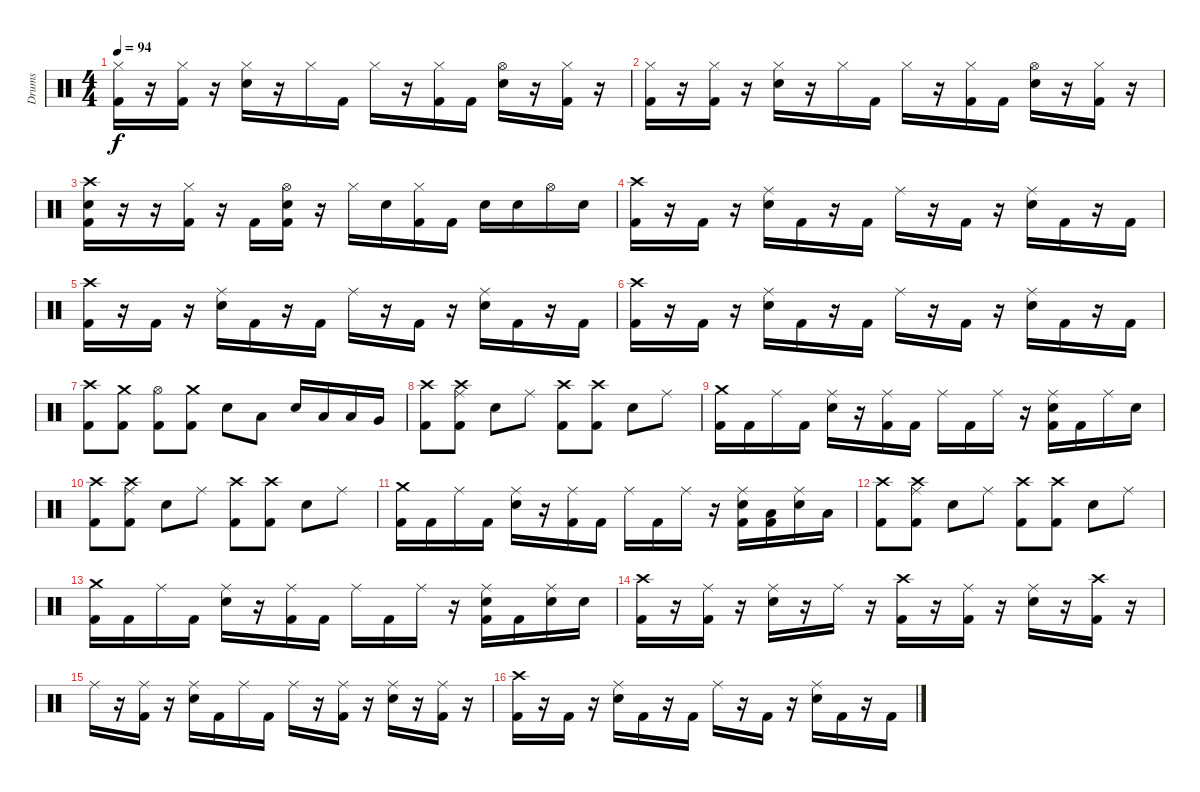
\track ("Drums" "Drums") {instrument percussion}
\staff {score}
\articulation defaults
\ts (4 4)
\tempo 94
\clef neutral
\ks c
("Hi-Hat (closed)" "Kick (hit) 2").16{dy f} r.16 ("Hi-Hat (closed)" "Kick (hit) 2").16 r.16 ("Hi-Hat (closed)" "Snare (hit) 2").16 r.16 "Hi-Hat (closed)".16 "Kick (hit) 2".16 "Hi-Hat (closed)".16 r.16 ("Hi-Hat (closed)" "Kick (hit) 2").16 "Kick (hit) 2".16 ("Hi-Hat (open)" "Snare (hit) 2").16 r.16 ("Hi-Hat (closed)" "Kick (hit) 2").16 r.16 |
("Hi-Hat (closed)" "Kick (hit) 2").16 r.16 ("Hi-Hat (closed)" "Kick (hit) 2").16 r.16 ("Hi-Hat (closed)" "Snare (hit) 2").16 r.16 "Hi-Hat (closed)".16 "Kick (hit) 2".16 "Hi-Hat (closed)".16 r.16 ("Hi-Hat (closed)" "Kick (hit) 2").16 "Kick (hit) 2".16 ("Hi-Hat (open)" "Snare (hit) 2").16 r.16 ("Hi-Hat (closed)" "Kick (hit) 2").16 r.16 |
("Crash high (hit)" "Snare (hit) 2" "Kick (hit) 2").16 r.16 r.16 ("Hi-Hat (closed)" "Kick (hit) 2").16 r.16 "Kick (hit) 2".16 ("Hi-Hat (open)" "Snare (hit) 2" "Kick (hit) 2").16 r.16 "Hi-Hat (closed)".16 "Snare (hit) 2".16 ("Hi-Hat (closed)" "Kick (hit) 2").16 "Kick (hit) 2".16 "Snare (hit) 2".16 "Snare (hit) 2".16 "Hi-Hat (open)".16 "Snare (hit) 2".16 |
("Crash high (hit)" "Kick (hit) 2").16 r.16 "Kick (hit) 2".16 r.16 ("Ride (middle)" "Snare (hit) 2").16 "Kick (hit) 2".16 r.16 "Kick (hit) 2".16 "Ride (middle)".16 r.16 "Kick (hit) 2".16 r.16 ("Ride (middle)" "Snare (hit) 2").16 "Kick (hit) 2".16 r.16 "Kick (hit) 2".16 |
("Crash high (hit)" "Kick (hit) 2").16 r.16 "Kick (hit) 2".16 r.16 ("Ride (middle)" "Snare (hit) 2").16 "Kick (hit) 2".16 r.16 "Kick (hit) 2".16 "Ride (middle)".16 r.16 "Kick (hit) 2".16 r.16 ("Ride (middle)" "Snare (hit) 2").16 "Kick (hit) 2".16 r.16 "Kick (hit) 2".16 |
("Crash high (hit)" "Kick (hit) 2").16 r.16 "Kick (hit) 2".16 r.16 ("Ride (middle)" "Snare (hit) 2").16 "Kick (hit) 2".16 r.16 "Kick (hit) 2".16 "Ride (middle)".16 r.16 "Kick (hit) 2".16 r.16 ("Ride (middle)" "Snare (hit) 2").16 "Kick (hit) 2".16 r.16 "Kick (hit) 2".16 |
("Crash high (hit)" "Kick (hit) 2").8 ("Crash medium (hit)" "Kick (hit) 2").8 ("Hi-Hat (open)" "Kick (hit) 2").8 ("Crash medium (hit)" "Kick (hit) 2").8 "Snare (hit) 2".8 "Low Tom (hit)".8 "Snare (hit) 2".16 "Low Tom (hit)".16 "Low Tom (hit)".16 "Very Low Tom (hit)".16 |
("Crash high (hit)" "Kick (hit) 2").8 ("Crash high (hit)" "Ride (middle)" "Kick (hit) 2").8 "Snare (hit) 2".8 "Ride (middle)".8 ("Crash high (hit)" "Kick (hit) 2").8 ("Crash high (hit)" "Kick (hit) 2").8 "Snare (hit) 2".8 "Ride (middle)".8 |
("Crash medium (hit)" "Kick (hit) 2").16 "Kick (hit) 2".16 "Ride (middle)".16 "Kick (hit) 2".16 ("Snare (hit) 2" "Ride (middle)").16 r.16 ("Ride (middle)" "Kick (hit) 2").16 "Kick (hit) 2".16 "Ride (middle)".16 "Kick (hit) 2".16 "Ride (middle)".16 r.16 ("Snare (hit) 2" "Ride (middle)" "Kick (hit) 2").16 "Kick (hit) 2".16 "Ride (middle)".16 "Snare (hit) 2".16 |
("Crash high (hit)" "Kick (hit) 2").8 ("Crash high (hit)" "Ride (middle)" "Kick (hit) 2").8 "Snare (hit) 2".8 "Ride (middle)".8 ("Crash high (hit)" "Kick (hit) 2").8 ("Crash high (hit)" "Kick (hit) 2").8 "Snare (hit) 2".8 "Ride (middle)".8 |
("Crash medium (hit)" "Kick (hit) 2").16 "Kick (hit) 2".16 "Ride (middle)".16 "Kick (hit) 2".16 ("Snare (hit) 2" "Ride (middle)").16 r.16 ("Ride (middle)" "Kick (hit) 2").16 "Kick (hit) 2".16 "Ride (middle)".16 "Kick (hit) 2".16 "Ride (middle)".16 r.16 ("Snare (hit) 2" "Ride (middle)" "Kick (hit) 2").16 ("Low Tom (hit)" "Kick (hit) 2").16 ("Snare (hit) 2" "Ride (middle)").16 "Low Floor Tom (hit)".16 |
("Crash high (hit)" "Kick (hit) 2").8 ("Crash high (hit)" "Ride (middle)" "Kick (hit) 2").8 "Snare (hit) 2".8 "Ride (middle)".8 ("Crash high (hit)" "Kick (hit) 2").8 ("Crash high (hit)" "Kick (hit) 2").8 "Snare (hit) 2".8 "Ride (middle)".8 |
("Crash medium (hit)" "Kick (hit) 2").16 "Kick (hit) 2".16 "Ride (middle)".16 "Kick (hit) 2".16 ("Snare (hit) 2" "Ride (middle)").16 r.16 ("Ride (middle)" "Kick (hit) 2").16 "Kick (hit) 2".16 "Ride (middle)".16 "Kick (hit) 2".16 "Ride (middle)".16 r.16 ("Snare (hit) 2" "Ride (middle)" "Kick (hit) 2").16 "Kick (hit) 2".16 ("Snare (hit) 2" "Ride (middle)").16 "Snare (hit) 2".16 |
("Crash high (hit)" "Kick (hit) 2").16 r.16 ("Ride (middle)" "Kick (hit) 2").16 r.16 ("Snare (hit) 2" "Ride (middle)").16 r.16 "Ride (middle)".16 r.16 ("Crash high (hit)" "Kick (hit) 2").16 r.16 ("Ride (middle)" "Kick (hit) 2").16 r.16 ("Snare (hit) 2" "Ride (middle)").16 r.16 ("Crash high (hit)" "Kick (hit) 2").16 r.16 |
"Ride (middle)".16 r.16 ("Ride (middle)" "Kick (hit) 2").16 r.16 ("Ride (middle)" "Snare (hit) 2").16 "Kick (hit) 2".16 "Ride (middle)".16 "Kick (hit) 2".16 "Ride (middle)".16 r.16 ("Ride (middle)" "Kick (hit) 2").16 r.16 ("Ride (middle)" "Snare (hit) 2").16 r.16 ("Ride (middle)" "Kick (hit) 2").16 r.16 |
("Crash high (hit)" "Kick (hit) 2").16 r.16 "Kick (hit) 2".16 r.16 ("Ride (middle)" "Snare (hit) 2").16 "Kick (hit) 2".16 r.16 "Kick (hit) 2".16 "Ride (middle)".16 r.16 "Kick (hit) 2".16 r.16 ("Ride (middle)" "Snare (hit) 2").16 "Kick (hit) 2".16 r.16 "Kick (hit) 2".16
